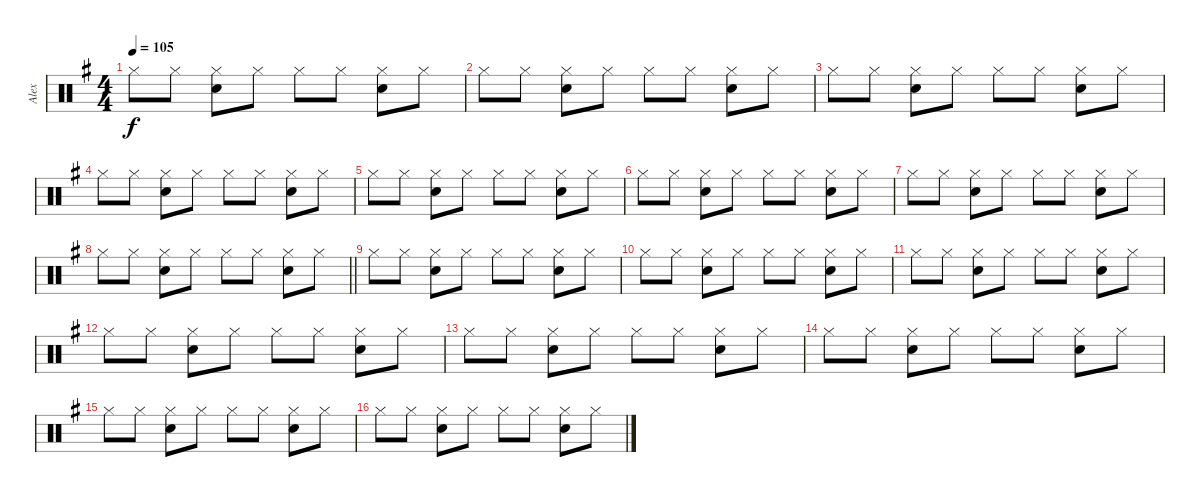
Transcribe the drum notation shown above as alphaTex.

\track ("Alex" "Alex") {instrument percussion}
\staff {score}
\articulation defaults
\ts (4 4)
\tempo 105
\clef neutral
\ks g "Hi-Hat (closed)".8{dy f} "Hi-Hat (closed)".8
("Hi-Hat (closed)" "Snare (hit) 2").8 "Hi-Hat (closed)".8 "Hi-Hat (closed)".8 "Hi-Hat (closed)".8 ("Hi-Hat (closed)" "Snare (hit) 2").8 "Hi-Hat (closed)".8 |
"Hi-Hat (closed)".8 "Hi-Hat (closed)".8 ("Hi-Hat (closed)" "Snare (hit) 2").8 "Hi-Hat (closed)".8 "Hi-Hat (closed)".8 "Hi-Hat (closed)".8 ("Hi-Hat (closed)" "Snare (hit) 2").8 "Hi-Hat (closed)".8 |
"Hi-Hat (closed)".8 "Hi-Hat (closed)".8 ("Hi-Hat (closed)" "Snare (hit) 2").8 "Hi-Hat (closed)".8 "Hi-Hat (closed)".8 "Hi-Hat (closed)".8 ("Hi-Hat (closed)" "Snare (hit) 2").8 "Hi-Hat (closed)".8 |
"Hi-Hat (closed)".8 "Hi-Hat (closed)".8 ("Hi-Hat (closed)" "Snare (hit) 2").8 "Hi-Hat (closed)".8 "Hi-Hat (closed)".8 "Hi-Hat (closed)".8 ("Hi-Hat (closed)" "Snare (hit) 2").8 "Hi-Hat (closed)".8 |
"Hi-Hat (closed)".8 "Hi-Hat (closed)".8 ("Hi-Hat (closed)" "Snare (hit) 2").8 "Hi-Hat (closed)".8 "Hi-Hat (closed)".8 "Hi-Hat (closed)".8 ("Hi-Hat (closed)" "Snare (hit) 2").8 "Hi-Hat (closed)".8 |
"Hi-Hat (closed)".8 "Hi-Hat (closed)".8 ("Hi-Hat (closed)" "Snare (hit) 2").8 "Hi-Hat (closed)".8 "Hi-Hat (closed)".8 "Hi-Hat (closed)".8 ("Hi-Hat (closed)" "Snare (hit) 2").8 "Hi-Hat (closed)".8 |
"Hi-Hat (closed)".8 "Hi-Hat (closed)".8 ("Hi-Hat (closed)" "Snare (hit) 2").8 "Hi-Hat (closed)".8 "Hi-Hat (closed)".8 "Hi-Hat (closed)".8 ("Hi-Hat (closed)" "Snare (hit) 2").8 "Hi-Hat (closed)".8 |
\barLineRight lightlight "Hi-Hat (closed)".8 "Hi-Hat (closed)".8
("Hi-Hat (closed)" "Snare (hit) 2").8 "Hi-Hat (closed)".8 "Hi-Hat (closed)".8 "Hi-Hat (closed)".8 ("Hi-Hat (closed)" "Snare (hit) 2").8 "Hi-Hat (closed)".8 |
"Hi-Hat (closed)".8 "Hi-Hat (closed)".8 ("Hi-Hat (closed)" "Snare (hit) 2").8 "Hi-Hat (closed)".8 "Hi-Hat (closed)".8 "Hi-Hat (closed)".8 ("Hi-Hat (closed)" "Snare (hit) 2").8 "Hi-Hat (closed)".8 |
"Hi-Hat (closed)".8 "Hi-Hat (closed)".8 ("Hi-Hat (closed)" "Snare (hit) 2").8 "Hi-Hat (closed)".8 "Hi-Hat (closed)".8 "Hi-Hat (closed)".8 ("Hi-Hat (closed)" "Snare (hit) 2").8 "Hi-Hat (closed)".8 |
"Hi-Hat (closed)".8 "Hi-Hat (closed)".8 ("Hi-Hat (closed)" "Snare (hit) 2").8 "Hi-Hat (closed)".8 "Hi-Hat (closed)".8 "Hi-Hat (closed)".8 ("Hi-Hat (closed)" "Snare (hit) 2").8 "Hi-Hat (closed)".8 |
"Hi-Hat (closed)".8 "Hi-Hat (closed)".8 ("Hi-Hat (closed)" "Snare (hit) 2").8 "Hi-Hat (closed)".8 "Hi-Hat (closed)".8 "Hi-Hat (closed)".8 ("Hi-Hat (closed)" "Snare (hit) 2").8 "Hi-Hat (closed)".8 |
"Hi-Hat (closed)".8 "Hi-Hat (closed)".8 ("Hi-Hat (closed)" "Snare (hit) 2").8 "Hi-Hat (closed)".8 "Hi-Hat (closed)".8 "Hi-Hat (closed)".8 ("Hi-Hat (closed)" "Snare (hit) 2").8 "Hi-Hat (closed)".8 |
"Hi-Hat (closed)".8 "Hi-Hat (closed)".8 ("Hi-Hat (closed)" "Snare (hit) 2").8 "Hi-Hat (closed)".8 "Hi-Hat (closed)".8 "Hi-Hat (closed)".8 ("Hi-Hat (closed)" "Snare (hit) 2").8 "Hi-Hat (closed)".8 |
"Hi-Hat (closed)".8 "Hi-Hat (closed)".8 ("Hi-Hat (closed)" "Snare (hit) 2").8 "Hi-Hat (closed)".8 "Hi-Hat (closed)".8 "Hi-Hat (closed)".8 ("Hi-Hat (closed)" "Snare (hit) 2").8 "Hi-Hat (closed)".8 |
"Hi-Hat (closed)".8 "Hi-Hat (closed)".8 ("Hi-Hat (closed)" "Snare (hit) 2").8 "Hi-Hat (closed)".8 "Hi-Hat (closed)".8 "Hi-Hat (closed)".8 ("Hi-Hat (closed)" "Snare (hit) 2").8 "Hi-Hat (closed)".8
